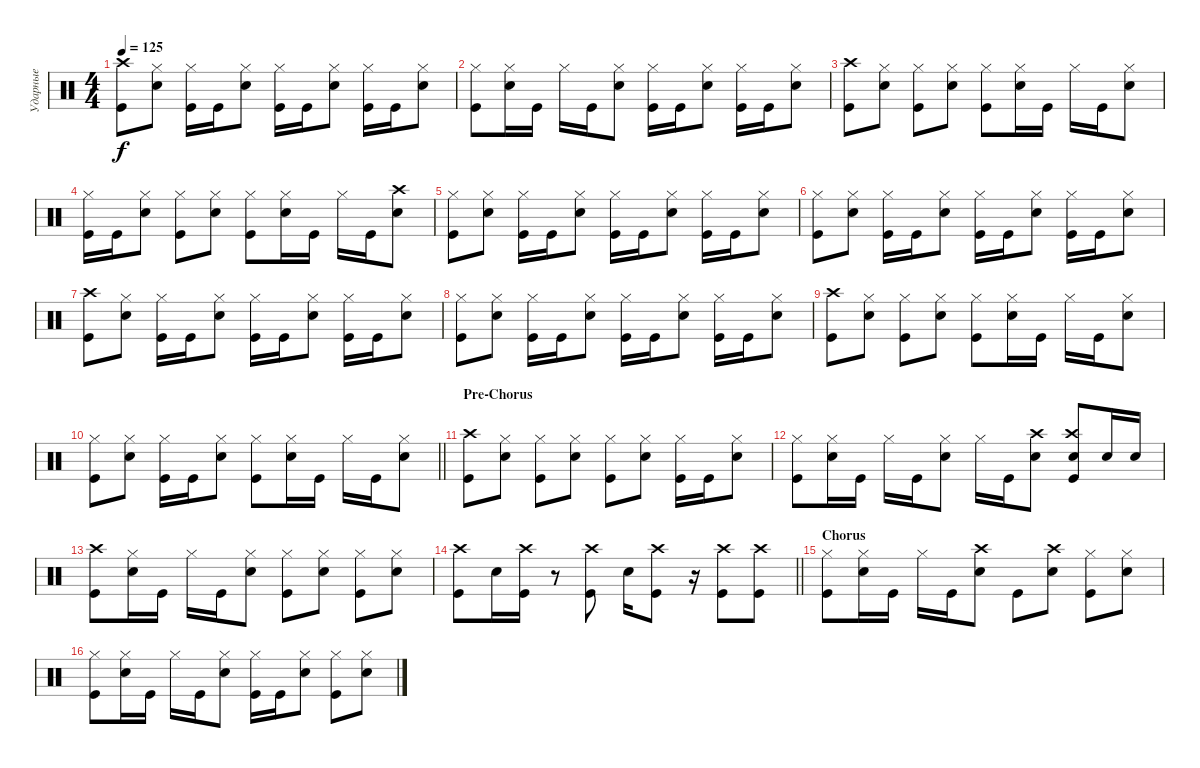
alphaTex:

\track ("Ударные" "Ударные") {instrument percussion}
\staff {score}
\articulation defaults
\ts (4 4)
\tempo 125
\clef neutral
\ks aminor
("Kick (hit)" "Crash high (hit)").8{dy f} ("Snare (hit) 2" "Hi-Hat (closed)").8 ("Kick (hit)" "Hi-Hat (closed)").16 "Kick (hit)".16 ("Snare (hit) 2" "Hi-Hat (closed)").8 ("Hi-Hat (closed)" "Kick (hit)").16 "Kick (hit)".16 ("Snare (hit) 2" "Hi-Hat (closed)").8 ("Kick (hit)" "Hi-Hat (closed)").16 "Kick (hit)".16 ("Snare (hit) 2" "Hi-Hat (closed)").8 |
("Kick (hit)" "Hi-Hat (closed)").8 ("Snare (hit) 2" "Hi-Hat (closed)").16 "Kick (hit)".16 "Hi-Hat (closed)".16 "Kick (hit)".16 ("Snare (hit) 2" "Hi-Hat (closed)").8 ("Hi-Hat (closed)" "Kick (hit)").16 "Kick (hit)".16 ("Snare (hit) 2" "Hi-Hat (closed)").8 ("Kick (hit)" "Hi-Hat (closed)").16 "Kick (hit)".16 ("Snare (hit) 2" "Hi-Hat (closed)").8 |
("Kick (hit)" "Crash high (hit)").8 ("Snare (hit) 2" "Hi-Hat (closed)").8 ("Kick (hit)" "Hi-Hat (closed)").8 ("Snare (hit) 2" "Hi-Hat (closed)").8 ("Kick (hit)" "Hi-Hat (closed)").8 ("Snare (hit) 2" "Hi-Hat (closed)").16 "Kick (hit)".16 "Hi-Hat (closed)".16 "Kick (hit)".16 ("Snare (hit) 2" "Hi-Hat (closed)").8 |
("Kick (hit)" "Hi-Hat (closed)").16 "Kick (hit)".16 ("Snare (hit) 2" "Hi-Hat (closed)").8 ("Kick (hit)" "Hi-Hat (closed)").8 ("Snare (hit) 2" "Hi-Hat (closed)").8 ("Kick (hit)" "Hi-Hat (closed)").8 ("Snare (hit) 2" "Hi-Hat (closed)").16 "Kick (hit)".16 "Hi-Hat (closed)".16 "Kick (hit)".16 ("Snare (hit) 2" "Crash high (hit)").8 |
("Kick (hit)" "Hi-Hat (closed)").8 ("Snare (hit) 2" "Hi-Hat (closed)").8 ("Kick (hit)" "Hi-Hat (closed)").16 "Kick (hit)".16 ("Snare (hit) 2" "Hi-Hat (closed)").8 ("Hi-Hat (closed)" "Kick (hit)").16 "Kick (hit)".16 ("Snare (hit) 2" "Hi-Hat (closed)").8 ("Kick (hit)" "Hi-Hat (closed)").16 "Kick (hit)".16 ("Snare (hit) 2" "Hi-Hat (closed)").8 |
("Kick (hit)" "Hi-Hat (closed)").8 ("Snare (hit) 2" "Hi-Hat (closed)").8 ("Kick (hit)" "Hi-Hat (closed)").16 "Kick (hit)".16 ("Snare (hit) 2" "Hi-Hat (closed)").8 ("Hi-Hat (closed)" "Kick (hit)").16 "Kick (hit)".16 ("Snare (hit) 2" "Hi-Hat (closed)").8 ("Kick (hit)" "Hi-Hat (closed)").16 "Kick (hit)".16 ("Snare (hit) 2" "Hi-Hat (closed)").8 |
("Kick (hit)" "Crash high (hit)").8 ("Snare (hit) 2" "Hi-Hat (closed)").8 ("Kick (hit)" "Hi-Hat (closed)").16 "Kick (hit)".16 ("Snare (hit) 2" "Hi-Hat (closed)").8 ("Hi-Hat (closed)" "Kick (hit)").16 "Kick (hit)".16 ("Snare (hit) 2" "Hi-Hat (closed)").8 ("Kick (hit)" "Hi-Hat (closed)").16 "Kick (hit)".16 ("Snare (hit) 2" "Hi-Hat (closed)").8 |
("Kick (hit)" "Hi-Hat (closed)").8 ("Snare (hit) 2" "Hi-Hat (closed)").8 ("Kick (hit)" "Hi-Hat (closed)").16 "Kick (hit)".16 ("Snare (hit) 2" "Hi-Hat (closed)").8 ("Hi-Hat (closed)" "Kick (hit)").16 "Kick (hit)".16 ("Snare (hit) 2" "Hi-Hat (closed)").8 ("Kick (hit)" "Hi-Hat (closed)").16 "Kick (hit)".16 ("Snare (hit) 2" "Hi-Hat (closed)").8 |
("Kick (hit)" "Crash high (hit)").8 ("Snare (hit) 2" "Hi-Hat (closed)").8 ("Kick (hit)" "Hi-Hat (closed)").8 ("Snare (hit) 2" "Hi-Hat (closed)").8 ("Kick (hit)" "Hi-Hat (closed)").8 ("Snare (hit) 2" "Hi-Hat (closed)").16 "Kick (hit)".16 "Hi-Hat (closed)".16 "Kick (hit)".16 ("Snare (hit) 2" "Hi-Hat (closed)").8 |
\barLineRight lightlight
("Kick (hit)" "Hi-Hat (closed)").8 ("Snare (hit) 2" "Hi-Hat (closed)").8 ("Kick (hit)" "Hi-Hat (closed)").16 "Kick (hit)".16 ("Snare (hit) 2" "Hi-Hat (closed)").8 ("Kick (hit)" "Hi-Hat (closed)").8 ("Snare (hit) 2" "Hi-Hat (closed)").16 "Kick (hit)".16 "Hi-Hat (closed)".16 "Kick (hit)".16 ("Snare (hit) 2" "Hi-Hat (closed)").8 |
\section ("" "Pre-Chorus")
("Kick (hit)" "Crash high (hit)").8 ("Snare (hit) 2" "Hi-Hat (closed)").8 ("Kick (hit)" "Hi-Hat (closed)").8 ("Snare (hit) 2" "Hi-Hat (closed)").8 ("Kick (hit)" "Hi-Hat (closed)").8 ("Snare (hit) 2" "Hi-Hat (closed)").8 ("Hi-Hat (closed)" "Kick (hit)").16 "Kick (hit)".16 ("Snare (hit) 2" "Hi-Hat (closed)").8 |
("Kick (hit)" "Hi-Hat (closed)").8 ("Snare (hit) 2" "Hi-Hat (closed)").16 "Kick (hit)".16 "Hi-Hat (closed)".16 "Kick (hit)".16 ("Snare (hit) 2" "Hi-Hat (closed)").8 "Hi-Hat (closed)".16 "Kick (hit)".16 ("Snare (hit) 2" "Crash high (hit)").8 ("Kick (hit)" "Snare (hit) 2" "Crash high (hit)").8 "Snare (hit) 2".16 "Snare (hit) 2".16 |
("Kick (hit)" "Crash high (hit)").8 ("Snare (hit) 2" "Hi-Hat (closed)").16 "Kick (hit)".16 "Hi-Hat (closed)".16 "Kick (hit)".16 ("Snare (hit) 2" "Hi-Hat (closed)").8 ("Kick (hit)" "Hi-Hat (closed)").8 ("Snare (hit) 2" "Hi-Hat (closed)").8 ("Kick (hit)" "Hi-Hat (closed)").8 ("Snare (hit) 2" "Hi-Hat (closed)").8 |
\barLineRight lightlight
("Kick (hit)" "Crash high (hit)").8 "Snare (hit) 2".16 ("Kick (hit)" "Crash high (hit)").16 r.8 ("Kick (hit)" "Crash high (hit)").8 "Snare (hit) 2".16 ("Kick (hit)" "Crash high (hit)").8 r.16 ("Kick (hit)" "Crash high (hit)").8 ("Kick (hit)" "Crash high (hit)").8 |
\section ("" "Chorus")
("Kick (hit)" "Hi-Hat (closed)").8 ("Snare (hit) 2" "Hi-Hat (closed)").16 "Kick (hit)".16 "Hi-Hat (closed)".16 "Kick (hit)".16 ("Snare (hit) 2" "Crash high (hit)").8 "Kick (hit)".8 ("Snare (hit) 2" "Crash high (hit)").8 ("Kick (hit)" "Hi-Hat (closed)").8 ("Snare (hit) 2" "Hi-Hat (closed)").8 |
("Kick (hit)" "Hi-Hat (closed)").8 ("Snare (hit) 2" "Hi-Hat (closed)").16 "Kick (hit)".16 "Hi-Hat (closed)".16 "Kick (hit)".16 ("Snare (hit) 2" "Hi-Hat (closed)").8 ("Kick (hit)" "Hi-Hat (closed)").16 "Kick (hit)".16 ("Snare (hit) 2" "Hi-Hat (closed)").8 ("Kick (hit)" "Hi-Hat (closed)").8 ("Snare (hit) 2" "Hi-Hat (closed)").8
